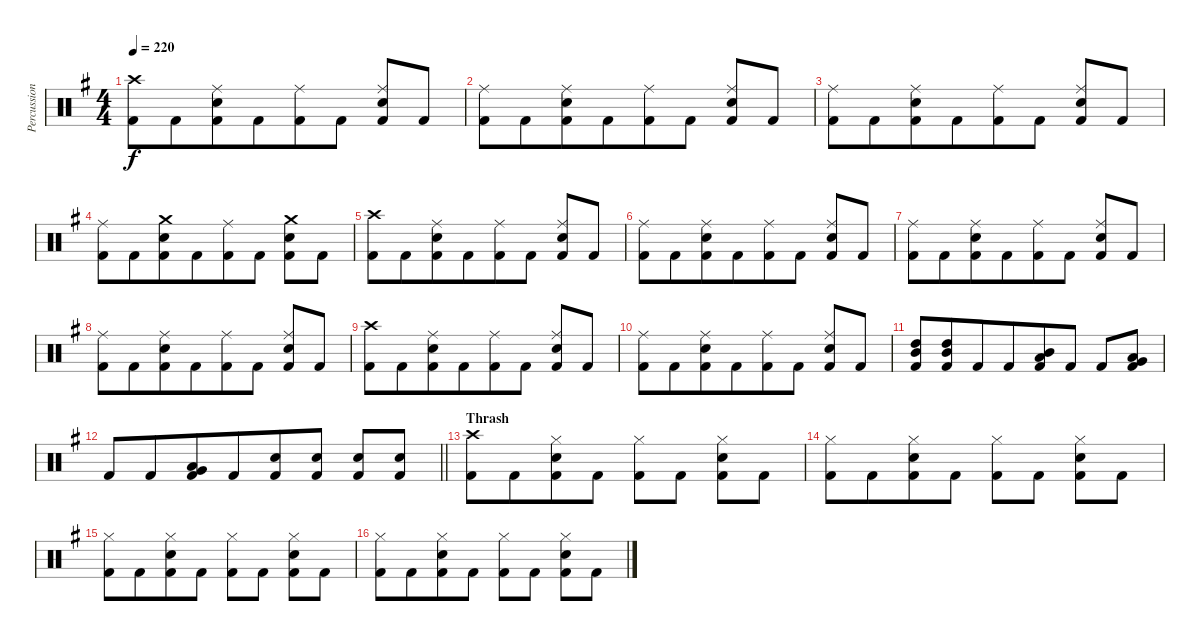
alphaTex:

\track ("Percussion" "Percussion") {instrument percussion}
\staff {score}
\articulation defaults
\ts (4 4)
\tempo 220
\clef neutral
\ks eminor
("Crash high (hit)" "Kick (hit) 2").8{dy f} "Kick (hit) 2".8{beam merge} ("Ride (middle)" "Snare (hit) 2" "Kick (hit) 2").8{beam merge} "Kick (hit) 2".8{beam merge} ("Ride (middle)" "Kick (hit) 2").8{beam merge} "Kick (hit) 2".8 ("Ride (middle)" "Snare (hit) 2" "Kick (hit) 2").8 "Kick (hit) 2".8 |
("Ride (middle)" "Kick (hit) 2").8 "Kick (hit) 2".8{beam merge} ("Ride (middle)" "Snare (hit) 2" "Kick (hit) 2").8{beam merge} "Kick (hit) 2".8{beam merge} ("Ride (middle)" "Kick (hit) 2").8{beam merge} "Kick (hit) 2".8 ("Ride (middle)" "Snare (hit) 2" "Kick (hit) 2").8 "Kick (hit) 2".8 |
("Ride (middle)" "Kick (hit) 2").8 "Kick (hit) 2".8{beam merge} ("Ride (middle)" "Snare (hit) 2" "Kick (hit) 2").8{beam merge} "Kick (hit) 2".8{beam merge} ("Ride (middle)" "Kick (hit) 2").8{beam merge} "Kick (hit) 2".8 ("Ride (middle)" "Snare (hit) 2" "Kick (hit) 2").8 "Kick (hit) 2".8 |
("Ride (middle)" "Kick (hit) 2").8 "Kick (hit) 2".8{beam merge} ("Crash medium (hit)" "Snare (hit) 2" "Kick (hit) 2").8{beam merge} "Kick (hit) 2".8{beam merge} ("Ride (middle)" "Kick (hit) 2").8{beam merge} "Kick (hit) 2".8 ("Crash medium (hit)" "Snare (hit) 2" "Kick (hit) 2").8 "Kick (hit) 2".8 |
("Crash high (hit)" "Kick (hit) 2").8 "Kick (hit) 2".8{beam merge} ("Ride (middle)" "Snare (hit) 2" "Kick (hit) 2").8{beam merge} "Kick (hit) 2".8{beam merge} ("Ride (middle)" "Kick (hit) 2").8{beam merge} "Kick (hit) 2".8 ("Ride (middle)" "Snare (hit) 2" "Kick (hit) 2").8 "Kick (hit) 2".8 |
("Ride (middle)" "Kick (hit) 2").8 "Kick (hit) 2".8{beam merge} ("Ride (middle)" "Snare (hit) 2" "Kick (hit) 2").8{beam merge} "Kick (hit) 2".8{beam merge} ("Ride (middle)" "Kick (hit) 2").8{beam merge} "Kick (hit) 2".8 ("Ride (middle)" "Snare (hit) 2" "Kick (hit) 2").8 "Kick (hit) 2".8 |
("Ride (middle)" "Kick (hit) 2").8 "Kick (hit) 2".8{beam merge} ("Ride (middle)" "Snare (hit) 2" "Kick (hit) 2").8{beam merge} "Kick (hit) 2".8{beam merge} ("Ride (middle)" "Kick (hit) 2").8{beam merge} "Kick (hit) 2".8 ("Ride (middle)" "Snare (hit) 2" "Kick (hit) 2").8 "Kick (hit) 2".8 |
("Ride (middle)" "Kick (hit) 2").8 "Kick (hit) 2".8{beam merge} ("Ride (middle)" "Snare (hit) 2" "Kick (hit) 2").8{beam merge} "Kick (hit) 2".8{beam merge} ("Ride (middle)" "Kick (hit) 2").8{beam merge} "Kick (hit) 2".8 ("Ride (middle)" "Snare (hit) 2" "Kick (hit) 2").8 "Kick (hit) 2".8 |
("Crash high (hit)" "Kick (hit) 2").8 "Kick (hit) 2".8{beam merge} ("Ride (middle)" "Snare (hit) 2" "Kick (hit) 2").8{beam merge} "Kick (hit) 2".8{beam merge} ("Ride (middle)" "Kick (hit) 2").8{beam merge} "Kick (hit) 2".8 ("Ride (middle)" "Snare (hit) 2" "Kick (hit) 2").8 "Kick (hit) 2".8 |
("Ride (middle)" "Kick (hit) 2").8 "Kick (hit) 2".8{beam merge} ("Ride (middle)" "Snare (hit) 2" "Kick (hit) 2").8{beam merge} "Kick (hit) 2".8{beam merge} ("Ride (middle)" "Kick (hit) 2").8{beam merge} "Kick (hit) 2".8 ("Ride (middle)" "Snare (hit) 2" "Kick (hit) 2").8 "Kick (hit) 2".8 |
("High Tom (hit)" "Mid Tom (hit)" "Kick (hit) 2").8 ("High Tom (hit)" "Mid Tom (hit)" "Kick (hit) 2").8{beam merge} "Kick (hit) 2".8{beam merge} "Kick (hit) 2".8{beam merge} ("Mid Tom (hit)" "Low Tom (hit)" "Kick (hit) 2").8{beam merge} "Kick (hit) 2".8 "Kick (hit) 2".8 ("Low Tom (hit)" "Very Low Tom (hit)" "Kick (hit) 2").8 |
\barLineRight lightlight "Kick (hit) 2".8 "Kick (hit) 2".8{beam merge}
("Very Low Tom (hit)" "Low Floor Tom (hit)" "Kick (hit) 2").8{beam merge} "Kick (hit) 2".8{beam merge} ("Snare (hit) 2" "Kick (hit) 2").8{beam merge} ("Snare (hit) 2" "Kick (hit) 2").8 ("Snare (hit) 2" "Kick (hit) 2").8 ("Snare (hit) 2" "Kick (hit) 2").8 |
\section ("" "Thrash")
("Crash high (hit)" "Kick (hit) 2").8 "Kick (hit) 2".8{beam merge} ("Hi-Hat (closed)" "Snare (hit) 2" "Kick (hit) 2").8{beam merge} "Kick (hit) 2".8 ("Hi-Hat (closed)" "Kick (hit) 2").8{beam merge} "Kick (hit) 2".8 ("Hi-Hat (closed)" "Snare (hit) 2" "Kick (hit) 2").8 "Kick (hit) 2".8 |
("Hi-Hat (closed)" "Kick (hit) 2").8 "Kick (hit) 2".8{beam merge} ("Hi-Hat (closed)" "Snare (hit) 2" "Kick (hit) 2").8{beam merge} "Kick (hit) 2".8 ("Hi-Hat (closed)" "Kick (hit) 2").8{beam merge} "Kick (hit) 2".8 ("Hi-Hat (closed)" "Snare (hit) 2" "Kick (hit) 2").8 "Kick (hit) 2".8 |
("Hi-Hat (closed)" "Kick (hit) 2").8 "Kick (hit) 2".8{beam merge} ("Hi-Hat (closed)" "Snare (hit) 2" "Kick (hit) 2").8{beam merge} "Kick (hit) 2".8 ("Hi-Hat (closed)" "Kick (hit) 2").8{beam merge} "Kick (hit) 2".8 ("Hi-Hat (closed)" "Snare (hit) 2" "Kick (hit) 2").8 "Kick (hit) 2".8 |
("Hi-Hat (closed)" "Kick (hit) 2").8 "Kick (hit) 2".8{beam merge} ("Hi-Hat (closed)" "Snare (hit) 2" "Kick (hit) 2").8{beam merge} "Kick (hit) 2".8 ("Hi-Hat (closed)" "Kick (hit) 2").8{beam merge} "Kick (hit) 2".8 ("Hi-Hat (closed)" "Snare (hit) 2" "Kick (hit) 2").8 "Kick (hit) 2".8
